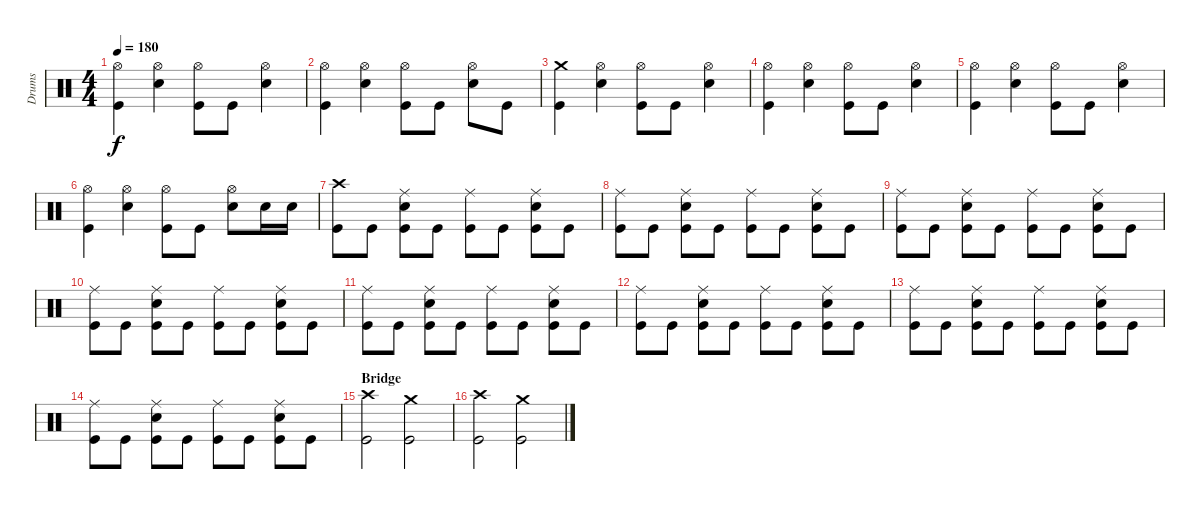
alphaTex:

\track ("Drums" "Drums") {instrument percussion}
\staff {score}
\articulation defaults
\ts (4 4)
\tempo 180
\clef neutral
\ks c
("Hi-Hat (open)" "Kick (hit)").4{dy f} ("Hi-Hat (open)" "Electric Snare (hit)").4 ("Hi-Hat (open)" "Kick (hit)").8 "Kick (hit)".8 ("Hi-Hat (open)" "Electric Snare (hit)").4 |
("Hi-Hat (open)" "Kick (hit)").4 ("Hi-Hat (open)" "Electric Snare (hit)").4 ("Hi-Hat (open)" "Kick (hit)").8 "Kick (hit)".8 ("Hi-Hat (open)" "Electric Snare (hit)").8 "Kick (hit)".8 |
("Crash medium (hit)" "Kick (hit)").4 ("Hi-Hat (open)" "Electric Snare (hit)").4 ("Hi-Hat (open)" "Kick (hit)").8 "Kick (hit)".8 ("Hi-Hat (open)" "Electric Snare (hit)").4 |
("Hi-Hat (open)" "Kick (hit)").4 ("Hi-Hat (open)" "Electric Snare (hit)").4 ("Hi-Hat (open)" "Kick (hit)").8 "Kick (hit)".8 ("Hi-Hat (open)" "Electric Snare (hit)").4 |
("Hi-Hat (open)" "Kick (hit)").4 ("Hi-Hat (open)" "Electric Snare (hit)").4 ("Hi-Hat (open)" "Kick (hit)").8 "Kick (hit)".8 ("Hi-Hat (open)" "Electric Snare (hit)").4 |
("Hi-Hat (open)" "Kick (hit)").4 ("Hi-Hat (open)" "Electric Snare (hit)").4 ("Hi-Hat (open)" "Kick (hit)").8 "Kick (hit)".8 ("Hi-Hat (open)" "Electric Snare (hit)").8 "Electric Snare (hit)".16 "Electric Snare (hit)".16 |
("Crash high (hit)" "Kick (hit)").8 "Kick (hit)".8 ("Ride (middle)" "Electric Snare (hit)" "Kick (hit)").8 "Kick (hit)".8 ("Ride (middle)" "Kick (hit)").8 "Kick (hit)".8 ("Ride (middle)" "Electric Snare (hit)" "Kick (hit)").8 "Kick (hit)".8 |
("Ride (middle)" "Kick (hit)").8 "Kick (hit)".8 ("Ride (middle)" "Electric Snare (hit)" "Kick (hit)").8 "Kick (hit)".8 ("Ride (middle)" "Kick (hit)").8 "Kick (hit)".8 ("Ride (middle)" "Electric Snare (hit)" "Kick (hit)").8 "Kick (hit)".8 |
("Ride (middle)" "Kick (hit)").8 "Kick (hit)".8 ("Ride (middle)" "Electric Snare (hit)" "Kick (hit)").8 "Kick (hit)".8 ("Ride (middle)" "Kick (hit)").8 "Kick (hit)".8 ("Ride (middle)" "Electric Snare (hit)" "Kick (hit)").8 "Kick (hit)".8 |
("Ride (middle)" "Kick (hit)").8 "Kick (hit)".8 ("Ride (middle)" "Electric Snare (hit)" "Kick (hit)").8 "Kick (hit)".8 ("Ride (middle)" "Kick (hit)").8 "Kick (hit)".8 ("Ride (middle)" "Electric Snare (hit)" "Kick (hit)").8 "Kick (hit)".8 |
("Ride (middle)" "Kick (hit)").8 "Kick (hit)".8 ("Ride (middle)" "Electric Snare (hit)" "Kick (hit)").8 "Kick (hit)".8 ("Ride (middle)" "Kick (hit)").8 "Kick (hit)".8 ("Ride (middle)" "Electric Snare (hit)" "Kick (hit)").8 "Kick (hit)".8 |
("Ride (middle)" "Kick (hit)").8 "Kick (hit)".8 ("Ride (middle)" "Electric Snare (hit)" "Kick (hit)").8 "Kick (hit)".8 ("Ride (middle)" "Kick (hit)").8 "Kick (hit)".8 ("Ride (middle)" "Electric Snare (hit)" "Kick (hit)").8 "Kick (hit)".8 |
("Ride (middle)" "Kick (hit)").8 "Kick (hit)".8 ("Ride (middle)" "Electric Snare (hit)" "Kick (hit)").8 "Kick (hit)".8 ("Ride (middle)" "Kick (hit)").8 "Kick (hit)".8 ("Ride (middle)" "Electric Snare (hit)" "Kick (hit)").8 "Kick (hit)".8 |
("Ride (middle)" "Kick (hit)").8 "Kick (hit)".8 ("Ride (middle)" "Electric Snare (hit)" "Kick (hit)").8 "Kick (hit)".8 ("Ride (middle)" "Kick (hit)").8 "Kick (hit)".8 ("Ride (middle)" "Electric Snare (hit)" "Kick (hit)").8 "Kick (hit)".8 |
\section ("" "Bridge")
("Crash high (hit)" "Kick (hit)").2 ("Crash medium (hit)" "Kick (hit)").2 |
("Crash high (hit)" "Kick (hit)").2 ("Crash medium (hit)" "Kick (hit)").2
